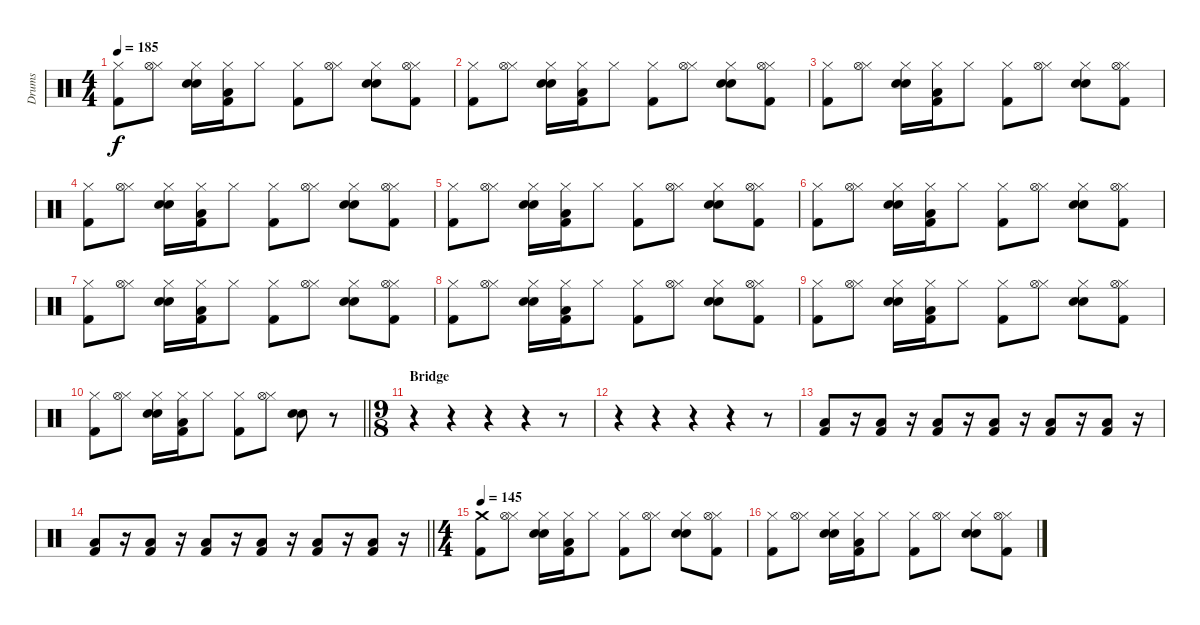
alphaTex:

\track ("Drums" "Drums") {instrument percussion}
\staff {score}
\articulation defaults
\ts (4 4)
\tempo 185
\clef neutral
\ks c
("Hi-Hat (closed)" "Kick (hit) 2").8{dy f} ("Hi-Hat (closed)" "Hi-Hat (open)").8 ("Hi-Hat (closed)" "Snare (hit) 2" "Electric Snare (hit)").16 ("Hi-Hat (closed)" "Low Floor Tom (hit)" "Kick (hit) 2").16 "Hi-Hat (closed)".8 ("Hi-Hat (closed)" "Kick (hit) 2").8 ("Hi-Hat (closed)" "Hi-Hat (open)").8 ("Hi-Hat (closed)" "Snare (hit) 2" "Electric Snare (hit)").8 ("Hi-Hat (closed)" "Hi-Hat (open)" "Kick (hit) 2").8 |
("Hi-Hat (closed)" "Kick (hit) 2").8 ("Hi-Hat (closed)" "Hi-Hat (open)").8 ("Hi-Hat (closed)" "Snare (hit) 2" "Electric Snare (hit)").16 ("Hi-Hat (closed)" "Low Floor Tom (hit)" "Kick (hit) 2").16 "Hi-Hat (closed)".8 ("Hi-Hat (closed)" "Kick (hit) 2").8 ("Hi-Hat (closed)" "Hi-Hat (open)").8 ("Hi-Hat (closed)" "Snare (hit) 2" "Electric Snare (hit)").8 ("Hi-Hat (closed)" "Hi-Hat (open)" "Kick (hit) 2").8 |
("Hi-Hat (closed)" "Kick (hit) 2").8 ("Hi-Hat (closed)" "Hi-Hat (open)").8 ("Hi-Hat (closed)" "Snare (hit) 2" "Electric Snare (hit)").16 ("Hi-Hat (closed)" "Low Floor Tom (hit)" "Kick (hit) 2").16 "Hi-Hat (closed)".8 ("Hi-Hat (closed)" "Kick (hit) 2").8 ("Hi-Hat (closed)" "Hi-Hat (open)").8 ("Hi-Hat (closed)" "Snare (hit) 2" "Electric Snare (hit)").8 ("Hi-Hat (closed)" "Hi-Hat (open)" "Kick (hit) 2").8 |
("Hi-Hat (closed)" "Kick (hit) 2").8 ("Hi-Hat (closed)" "Hi-Hat (open)").8 ("Hi-Hat (closed)" "Snare (hit) 2" "Electric Snare (hit)").16 ("Hi-Hat (closed)" "Low Floor Tom (hit)" "Kick (hit) 2").16 "Hi-Hat (closed)".8 ("Hi-Hat (closed)" "Kick (hit) 2").8 ("Hi-Hat (closed)" "Hi-Hat (open)").8 ("Hi-Hat (closed)" "Snare (hit) 2" "Electric Snare (hit)").8 ("Hi-Hat (closed)" "Hi-Hat (open)" "Kick (hit) 2").8 |
("Hi-Hat (closed)" "Kick (hit) 2").8 ("Hi-Hat (closed)" "Hi-Hat (open)").8 ("Hi-Hat (closed)" "Snare (hit) 2" "Electric Snare (hit)").16 ("Hi-Hat (closed)" "Low Floor Tom (hit)" "Kick (hit) 2").16 "Hi-Hat (closed)".8 ("Hi-Hat (closed)" "Kick (hit) 2").8 ("Hi-Hat (closed)" "Hi-Hat (open)").8 ("Hi-Hat (closed)" "Snare (hit) 2" "Electric Snare (hit)").8 ("Hi-Hat (closed)" "Hi-Hat (open)" "Kick (hit) 2").8 |
("Hi-Hat (closed)" "Kick (hit) 2").8 ("Hi-Hat (closed)" "Hi-Hat (open)").8 ("Hi-Hat (closed)" "Snare (hit) 2" "Electric Snare (hit)").16 ("Hi-Hat (closed)" "Low Floor Tom (hit)" "Kick (hit) 2").16 "Hi-Hat (closed)".8 ("Hi-Hat (closed)" "Kick (hit) 2").8 ("Hi-Hat (closed)" "Hi-Hat (open)").8 ("Hi-Hat (closed)" "Snare (hit) 2" "Electric Snare (hit)").8 ("Hi-Hat (closed)" "Hi-Hat (open)" "Kick (hit) 2").8 |
("Hi-Hat (closed)" "Kick (hit) 2").8 ("Hi-Hat (closed)" "Hi-Hat (open)").8 ("Hi-Hat (closed)" "Snare (hit) 2" "Electric Snare (hit)").16 ("Hi-Hat (closed)" "Low Floor Tom (hit)" "Kick (hit) 2").16 "Hi-Hat (closed)".8 ("Hi-Hat (closed)" "Kick (hit) 2").8 ("Hi-Hat (closed)" "Hi-Hat (open)").8 ("Hi-Hat (closed)" "Snare (hit) 2" "Electric Snare (hit)").8 ("Hi-Hat (closed)" "Hi-Hat (open)" "Kick (hit) 2").8 |
("Hi-Hat (closed)" "Kick (hit) 2").8 ("Hi-Hat (closed)" "Hi-Hat (open)").8 ("Hi-Hat (closed)" "Snare (hit) 2" "Electric Snare (hit)").16 ("Hi-Hat (closed)" "Low Floor Tom (hit)" "Kick (hit) 2").16 "Hi-Hat (closed)".8 ("Hi-Hat (closed)" "Kick (hit) 2").8 ("Hi-Hat (closed)" "Hi-Hat (open)").8 ("Hi-Hat (closed)" "Snare (hit) 2" "Electric Snare (hit)").8 ("Hi-Hat (closed)" "Hi-Hat (open)" "Kick (hit) 2").8 |
("Hi-Hat (closed)" "Kick (hit) 2").8 ("Hi-Hat (closed)" "Hi-Hat (open)").8 ("Hi-Hat (closed)" "Snare (hit) 2" "Electric Snare (hit)").16 ("Hi-Hat (closed)" "Low Floor Tom (hit)" "Kick (hit) 2").16 "Hi-Hat (closed)".8 ("Hi-Hat (closed)" "Kick (hit) 2").8 ("Hi-Hat (closed)" "Hi-Hat (open)").8 ("Hi-Hat (closed)" "Snare (hit) 2" "Electric Snare (hit)").8 ("Hi-Hat (closed)" "Hi-Hat (open)" "Kick (hit) 2").8 |
\barLineRight lightlight
("Hi-Hat (closed)" "Kick (hit) 2").8 ("Hi-Hat (closed)" "Hi-Hat (open)").8 ("Hi-Hat (closed)" "Snare (hit) 2" "Electric Snare (hit)").16 ("Hi-Hat (closed)" "Low Floor Tom (hit)" "Kick (hit) 2").16 "Hi-Hat (closed)".8 ("Hi-Hat (closed)" "Kick (hit) 2").8 ("Hi-Hat (closed)" "Hi-Hat (open)").8 ("Snare (hit) 2" "Electric Snare (hit)").8 r.8 |
\ts (9 8)
\section ("" "Bridge")
r.4 r.4 r.4 r.4 r.8 |
r.4 r.4 r.4 r.4 r.8 |
("Low Floor Tom (hit)" "Kick (hit) 2").8 r.16 ("Low Floor Tom (hit)" "Kick (hit) 2").8 r.16 ("Low Floor Tom (hit)" "Kick (hit) 2").8 r.16 ("Low Floor Tom (hit)" "Kick (hit) 2").8 r.16 ("Low Floor Tom (hit)" "Kick (hit) 2").8 r.16 ("Low Floor Tom (hit)" "Kick (hit) 2").8 r.16 |
\barLineRight lightlight
("Low Floor Tom (hit)" "Kick (hit) 2").8 r.16 ("Low Floor Tom (hit)" "Kick (hit) 2").8 r.16 ("Low Floor Tom (hit)" "Kick (hit) 2").8 r.16 ("Low Floor Tom (hit)" "Kick (hit) 2").8 r.16 ("Low Floor Tom (hit)" "Kick (hit) 2").8 r.16 ("Low Floor Tom (hit)" "Kick (hit) 2").8 r.16 |
\ts (4 4)
\tempo 145
("Crash medium (hit)" "Kick (hit) 2").8 ("Hi-Hat (closed)" "Hi-Hat (open)").8 ("Hi-Hat (closed)" "Snare (hit) 2" "Electric Snare (hit)").16 ("Hi-Hat (closed)" "Low Floor Tom (hit)" "Kick (hit) 2").16 "Hi-Hat (closed)".8 ("Hi-Hat (closed)" "Kick (hit) 2").8 ("Hi-Hat (closed)" "Hi-Hat (open)").8 ("Hi-Hat (closed)" "Snare (hit) 2" "Electric Snare (hit)").8 ("Hi-Hat (closed)" "Hi-Hat (open)" "Kick (hit) 2").8 |
("Hi-Hat (closed)" "Kick (hit) 2").8 ("Hi-Hat (closed)" "Hi-Hat (open)").8 ("Hi-Hat (closed)" "Snare (hit) 2" "Electric Snare (hit)").16 ("Hi-Hat (closed)" "Low Floor Tom (hit)" "Kick (hit) 2").16 "Hi-Hat (closed)".8 ("Hi-Hat (closed)" "Kick (hit) 2").8 ("Hi-Hat (closed)" "Hi-Hat (open)").8 ("Hi-Hat (closed)" "Snare (hit) 2" "Electric Snare (hit)").8 ("Hi-Hat (closed)" "Hi-Hat (open)" "Kick (hit) 2").8
